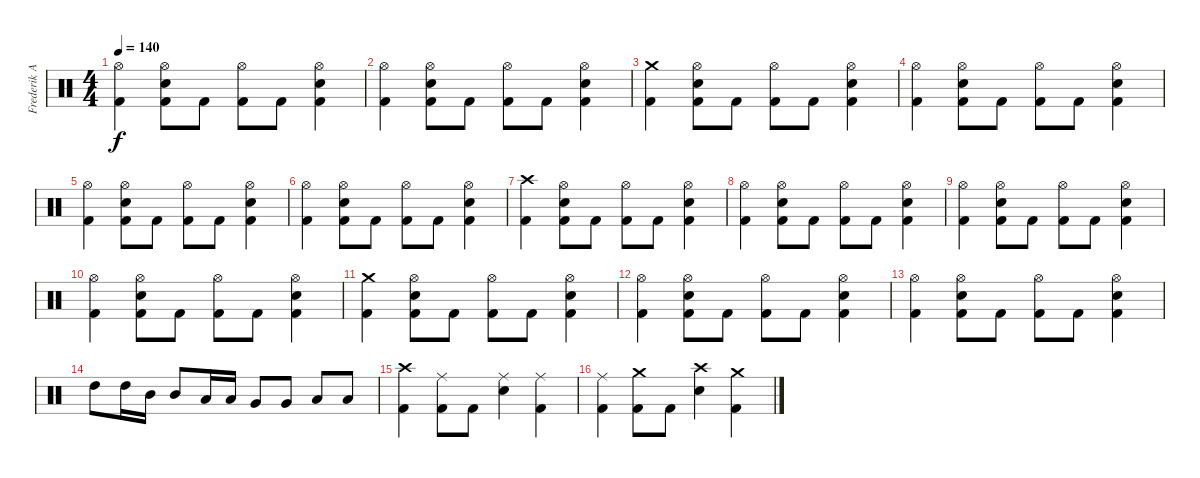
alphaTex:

\track ("Frederik Anderson" "Frederik A") {instrument percussion}
\staff {score}
\articulation defaults
\ts (4 4)
\tempo 140
\clef neutral
\ks c
("Hi-Hat (open)" "Kick (hit) 2").4{dy f} ("Hi-Hat (open)" "Electric Snare (hit)" "Kick (hit) 2").8 "Kick (hit) 2".8 ("Hi-Hat (open)" "Kick (hit) 2").8 "Kick (hit) 2".8 ("Hi-Hat (open)" "Electric Snare (hit)" "Kick (hit) 2").4 |
("Hi-Hat (open)" "Kick (hit) 2").4 ("Hi-Hat (open)" "Electric Snare (hit)" "Kick (hit) 2").8 "Kick (hit) 2".8 ("Hi-Hat (open)" "Kick (hit) 2").8 "Kick (hit) 2".8 ("Hi-Hat (open)" "Electric Snare (hit)" "Kick (hit) 2").4 |
("Crash medium (hit)" "Kick (hit) 2").4 ("Hi-Hat (open)" "Electric Snare (hit)" "Kick (hit) 2").8 "Kick (hit) 2".8 ("Hi-Hat (open)" "Kick (hit) 2").8 "Kick (hit) 2".8 ("Hi-Hat (open)" "Electric Snare (hit)" "Kick (hit) 2").4 |
("Hi-Hat (open)" "Kick (hit) 2").4 ("Hi-Hat (open)" "Electric Snare (hit)" "Kick (hit) 2").8 "Kick (hit) 2".8 ("Hi-Hat (open)" "Kick (hit) 2").8 "Kick (hit) 2".8 ("Hi-Hat (open)" "Electric Snare (hit)" "Kick (hit) 2").4 |
("Hi-Hat (open)" "Kick (hit) 2").4 ("Hi-Hat (open)" "Electric Snare (hit)" "Kick (hit) 2").8 "Kick (hit) 2".8 ("Hi-Hat (open)" "Kick (hit) 2").8 "Kick (hit) 2".8 ("Hi-Hat (open)" "Electric Snare (hit)" "Kick (hit) 2").4 |
("Hi-Hat (open)" "Kick (hit) 2").4 ("Hi-Hat (open)" "Electric Snare (hit)" "Kick (hit) 2").8 "Kick (hit) 2".8 ("Hi-Hat (open)" "Kick (hit) 2").8 "Kick (hit) 2".8 ("Hi-Hat (open)" "Electric Snare (hit)" "Kick (hit) 2").4 |
("Crash high (hit)" "Kick (hit) 2").4 ("Hi-Hat (open)" "Electric Snare (hit)" "Kick (hit) 2").8 "Kick (hit) 2".8 ("Hi-Hat (open)" "Kick (hit) 2").8 "Kick (hit) 2".8 ("Hi-Hat (open)" "Electric Snare (hit)" "Kick (hit) 2").4 |
("Hi-Hat (open)" "Kick (hit) 2").4 ("Hi-Hat (open)" "Electric Snare (hit)" "Kick (hit) 2").8 "Kick (hit) 2".8 ("Hi-Hat (open)" "Kick (hit) 2").8 "Kick (hit) 2".8 ("Hi-Hat (open)" "Electric Snare (hit)" "Kick (hit) 2").4 |
("Hi-Hat (open)" "Kick (hit) 2").4 ("Hi-Hat (open)" "Electric Snare (hit)" "Kick (hit) 2").8 "Kick (hit) 2".8 ("Hi-Hat (open)" "Kick (hit) 2").8 "Kick (hit) 2".8 ("Hi-Hat (open)" "Electric Snare (hit)" "Kick (hit) 2").4 |
("Hi-Hat (open)" "Kick (hit) 2").4 ("Hi-Hat (open)" "Electric Snare (hit)" "Kick (hit) 2").8 "Kick (hit) 2".8 ("Hi-Hat (open)" "Kick (hit) 2").8 "Kick (hit) 2".8 ("Hi-Hat (open)" "Electric Snare (hit)" "Kick (hit) 2").4 |
("Crash medium (hit)" "Kick (hit) 2").4 ("Hi-Hat (open)" "Electric Snare (hit)" "Kick (hit) 2").8 "Kick (hit) 2".8 ("Hi-Hat (open)" "Kick (hit) 2").8 "Kick (hit) 2".8 ("Hi-Hat (open)" "Electric Snare (hit)" "Kick (hit) 2").4 |
("Hi-Hat (open)" "Kick (hit) 2").4 ("Hi-Hat (open)" "Electric Snare (hit)" "Kick (hit) 2").8 "Kick (hit) 2".8 ("Hi-Hat (open)" "Kick (hit) 2").8 "Kick (hit) 2".8 ("Hi-Hat (open)" "Electric Snare (hit)" "Kick (hit) 2").4 |
("Hi-Hat (open)" "Kick (hit) 2").4 ("Hi-Hat (open)" "Electric Snare (hit)" "Kick (hit) 2").8 "Kick (hit) 2".8 ("Hi-Hat (open)" "Kick (hit) 2").8 "Kick (hit) 2".8 ("Hi-Hat (open)" "Electric Snare (hit)" "Kick (hit) 2").4 |
"High Tom (hit)".8 "High Tom (hit)".16 "Mid Tom (hit)".16 "Mid Tom (hit)".8 "Low Tom (hit)".16 "Low Tom (hit)".16 "Very Low Tom (hit)".8 "Very Low Tom (hit)".8 "Low Floor Tom (hit)".8 "Low Floor Tom (hit)".8 |
("Crash high (hit)" "Kick (hit) 2").4 ("Ride (middle)" "Kick (hit) 2").8 "Kick (hit) 2".8 ("Ride (middle)" "Electric Snare (hit)").4 ("Ride (middle)" "Kick (hit) 2").4 |
("Ride (middle)" "Kick (hit) 2").4 ("Crash medium (hit)" "Kick (hit) 2").8 "Kick (hit) 2".8 ("Crash high (hit)" "Electric Snare (hit)").4 ("Crash medium (hit)" "Kick (hit) 2").4
